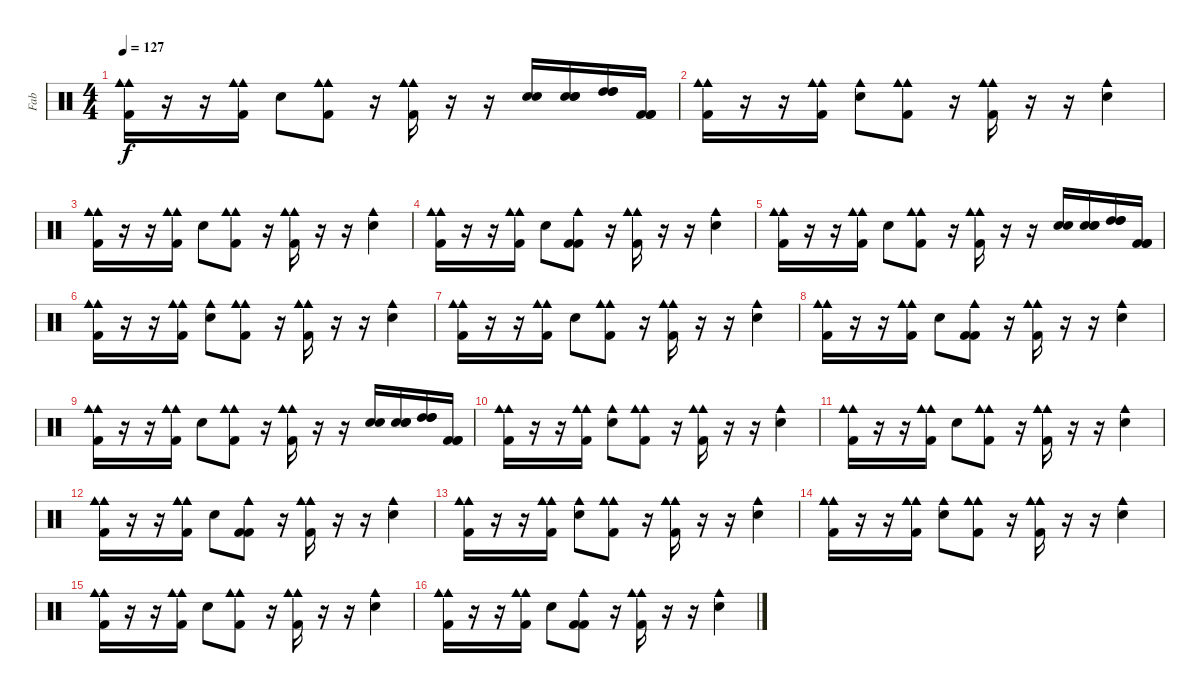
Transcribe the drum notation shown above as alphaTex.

\track ("Fab" "Fab") {instrument percussion}
\staff {score}
\articulation defaults
\ts (4 4)
\tempo 127
\clef neutral
\ks c
("Cowbell medium (hit)" "Kick (hit) 2" "Cowbell medium (hit)").16{dy f} r.16 r.16 ("Cowbell medium (hit)" "Kick (hit) 2" "Cowbell medium (hit)").16 "Electric Snare (hit)".8 ("Cowbell medium (hit)" "Kick (hit) 2" "Cowbell medium (hit)").8 r.16 ("Cowbell medium (hit)" "Kick (hit) 2" "Cowbell medium (hit)").16 r.16 r.16 ("Electric Snare (hit)" "Electric Snare (hit)").16 ("Snare (hit) 2" "Snare (hit) 2" "Snare (hit) 2").16 ("High Tom (hit)" "High Tom (hit)" "High Tom (hit)").16 ("Kick (hit) 2" "Kick (hit) 2" "Kick (hit) 2").16 |
("Cowbell medium (hit)" "Kick (hit) 2" "Cowbell medium (hit)").16 r.16 r.16 ("Cowbell medium (hit)" "Kick (hit) 2" "Cowbell medium (hit)").16 ("Electric Snare (hit)" "Cowbell medium (hit)").8 ("Cowbell medium (hit)" "Kick (hit) 2" "Cowbell medium (hit)").8 r.16 ("Cowbell medium (hit)" "Kick (hit) 2" "Cowbell medium (hit)").16 r.16 r.16 ("Electric Snare (hit)" "Cowbell medium (hit)").4 |
("Cowbell medium (hit)" "Kick (hit) 2" "Cowbell medium (hit)").16 r.16 r.16 ("Cowbell medium (hit)" "Kick (hit) 2" "Cowbell medium (hit)").16 "Electric Snare (hit)".8 ("Cowbell medium (hit)" "Kick (hit) 2" "Cowbell medium (hit)").8 r.16 ("Cowbell medium (hit)" "Kick (hit) 2" "Cowbell medium (hit)").16 r.16 r.16 ("Electric Snare (hit)" "Cowbell medium (hit)").4 |
("Cowbell medium (hit)" "Kick (hit) 2" "Cowbell medium (hit)").16 r.16 r.16 ("Cowbell medium (hit)" "Kick (hit) 2" "Cowbell medium (hit)").16 "Electric Snare (hit)".8 ("Kick (hit) 2" "Kick (hit) 2" "Cowbell medium (hit)").8 r.16 ("Cowbell medium (hit)" "Kick (hit) 2" "Cowbell medium (hit)").16 r.16 r.16 ("Electric Snare (hit)" "Cowbell medium (hit)").4 |
("Cowbell medium (hit)" "Kick (hit) 2" "Cowbell medium (hit)").16 r.16 r.16 ("Cowbell medium (hit)" "Kick (hit) 2" "Cowbell medium (hit)").16 "Electric Snare (hit)".8 ("Cowbell medium (hit)" "Kick (hit) 2" "Cowbell medium (hit)").8 r.16 ("Cowbell medium (hit)" "Kick (hit) 2" "Cowbell medium (hit)").16 r.16 r.16 ("Electric Snare (hit)" "Electric Snare (hit)").16 ("Snare (hit) 2" "Snare (hit) 2" "Snare (hit) 2").16 ("High Tom (hit)" "High Tom (hit)" "High Tom (hit)").16 ("Kick (hit) 2" "Kick (hit) 2" "Kick (hit) 2").16 |
("Cowbell medium (hit)" "Kick (hit) 2" "Cowbell medium (hit)").16 r.16 r.16 ("Cowbell medium (hit)" "Kick (hit) 2" "Cowbell medium (hit)").16 ("Electric Snare (hit)" "Cowbell medium (hit)").8 ("Cowbell medium (hit)" "Kick (hit) 2" "Cowbell medium (hit)").8 r.16 ("Cowbell medium (hit)" "Kick (hit) 2" "Cowbell medium (hit)").16 r.16 r.16 ("Electric Snare (hit)" "Cowbell medium (hit)").4 |
("Cowbell medium (hit)" "Kick (hit) 2" "Cowbell medium (hit)").16 r.16 r.16 ("Cowbell medium (hit)" "Kick (hit) 2" "Cowbell medium (hit)").16 "Electric Snare (hit)".8 ("Cowbell medium (hit)" "Kick (hit) 2" "Cowbell medium (hit)").8 r.16 ("Cowbell medium (hit)" "Kick (hit) 2" "Cowbell medium (hit)").16 r.16 r.16 ("Electric Snare (hit)" "Cowbell medium (hit)").4 |
("Cowbell medium (hit)" "Kick (hit) 2" "Cowbell medium (hit)").16 r.16 r.16 ("Cowbell medium (hit)" "Kick (hit) 2" "Cowbell medium (hit)").16 "Electric Snare (hit)".8 ("Kick (hit) 2" "Kick (hit) 2" "Cowbell medium (hit)").8 r.16 ("Cowbell medium (hit)" "Kick (hit) 2" "Cowbell medium (hit)").16 r.16 r.16 ("Electric Snare (hit)" "Cowbell medium (hit)").4 |
("Cowbell medium (hit)" "Kick (hit) 2" "Cowbell medium (hit)").16 r.16 r.16 ("Cowbell medium (hit)" "Kick (hit) 2" "Cowbell medium (hit)").16 "Electric Snare (hit)".8 ("Cowbell medium (hit)" "Kick (hit) 2" "Cowbell medium (hit)").8 r.16 ("Cowbell medium (hit)" "Kick (hit) 2" "Cowbell medium (hit)").16 r.16 r.16 ("Electric Snare (hit)" "Electric Snare (hit)").16 ("Snare (hit) 2" "Snare (hit) 2" "Snare (hit) 2").16 ("High Tom (hit)" "High Tom (hit)" "High Tom (hit)").16 ("Kick (hit) 2" "Kick (hit) 2" "Kick (hit) 2").16 |
("Cowbell medium (hit)" "Kick (hit) 2" "Cowbell medium (hit)").16 r.16 r.16 ("Cowbell medium (hit)" "Kick (hit) 2" "Cowbell medium (hit)").16 ("Electric Snare (hit)" "Cowbell medium (hit)").8 ("Cowbell medium (hit)" "Kick (hit) 2" "Cowbell medium (hit)").8 r.16 ("Cowbell medium (hit)" "Kick (hit) 2" "Cowbell medium (hit)").16 r.16 r.16 ("Electric Snare (hit)" "Cowbell medium (hit)").4 |
("Cowbell medium (hit)" "Kick (hit) 2" "Cowbell medium (hit)").16 r.16 r.16 ("Cowbell medium (hit)" "Kick (hit) 2" "Cowbell medium (hit)").16 "Electric Snare (hit)".8 ("Cowbell medium (hit)" "Kick (hit) 2" "Cowbell medium (hit)").8 r.16 ("Cowbell medium (hit)" "Kick (hit) 2" "Cowbell medium (hit)").16 r.16 r.16 ("Electric Snare (hit)" "Cowbell medium (hit)").4 |
("Cowbell medium (hit)" "Kick (hit) 2" "Cowbell medium (hit)").16 r.16 r.16 ("Cowbell medium (hit)" "Kick (hit) 2" "Cowbell medium (hit)").16 "Electric Snare (hit)".8 ("Kick (hit) 2" "Kick (hit) 2" "Cowbell medium (hit)").8 r.16 ("Cowbell medium (hit)" "Kick (hit) 2" "Cowbell medium (hit)").16 r.16 r.16 ("Electric Snare (hit)" "Cowbell medium (hit)").4 |
("Cowbell medium (hit)" "Kick (hit) 2" "Cowbell medium (hit)").16 r.16 r.16 ("Cowbell medium (hit)" "Kick (hit) 2" "Cowbell medium (hit)").16 ("Electric Snare (hit)" "Cowbell medium (hit)").8 ("Cowbell medium (hit)" "Kick (hit) 2" "Cowbell medium (hit)").8 r.16 ("Cowbell medium (hit)" "Kick (hit) 2" "Cowbell medium (hit)").16 r.16 r.16 ("Electric Snare (hit)" "Cowbell medium (hit)").4 |
("Cowbell medium (hit)" "Kick (hit) 2" "Cowbell medium (hit)").16 r.16 r.16 ("Cowbell medium (hit)" "Kick (hit) 2" "Cowbell medium (hit)").16 ("Electric Snare (hit)" "Cowbell medium (hit)").8 ("Cowbell medium (hit)" "Kick (hit) 2" "Cowbell medium (hit)").8 r.16 ("Cowbell medium (hit)" "Kick (hit) 2" "Cowbell medium (hit)").16 r.16 r.16 ("Electric Snare (hit)" "Cowbell medium (hit)").4 |
("Cowbell medium (hit)" "Kick (hit) 2" "Cowbell medium (hit)").16 r.16 r.16 ("Cowbell medium (hit)" "Kick (hit) 2" "Cowbell medium (hit)").16 "Electric Snare (hit)".8 ("Cowbell medium (hit)" "Kick (hit) 2" "Cowbell medium (hit)").8 r.16 ("Cowbell medium (hit)" "Kick (hit) 2" "Cowbell medium (hit)").16 r.16 r.16 ("Electric Snare (hit)" "Cowbell medium (hit)").4 |
("Cowbell medium (hit)" "Kick (hit) 2" "Cowbell medium (hit)").16 r.16 r.16 ("Cowbell medium (hit)" "Kick (hit) 2" "Cowbell medium (hit)").16 "Electric Snare (hit)".8 ("Kick (hit) 2" "Kick (hit) 2" "Cowbell medium (hit)").8 r.16 ("Cowbell medium (hit)" "Kick (hit) 2" "Cowbell medium (hit)").16 r.16 r.16 ("Electric Snare (hit)" "Cowbell medium (hit)").4
